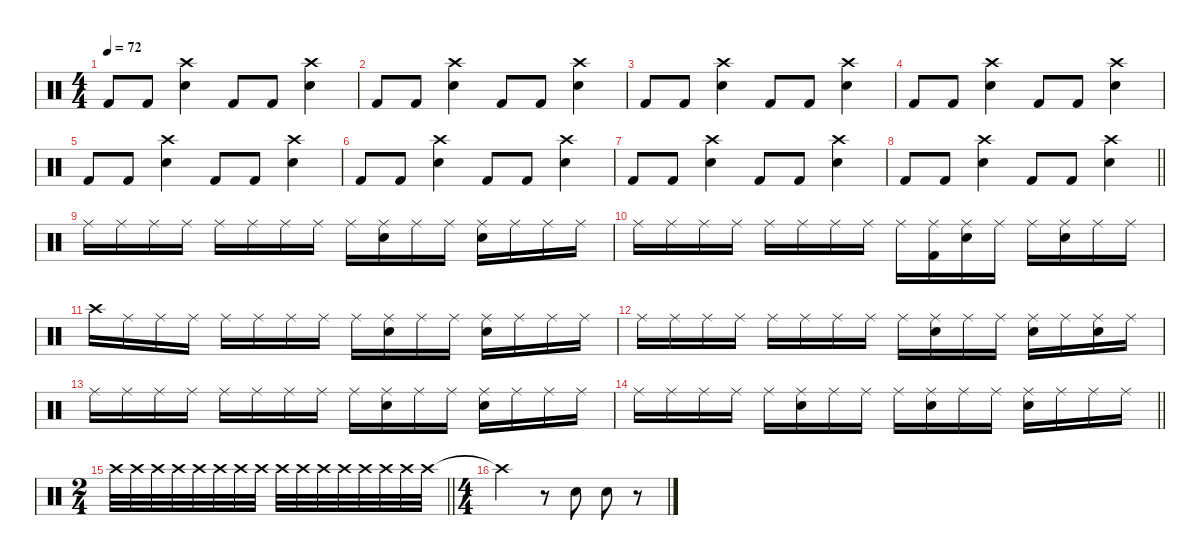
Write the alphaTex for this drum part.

\defaultSystemsLayout 4
\hideDynamics
\bracketExtendMode nobrackets
\singleTrackTrackNamePolicy hidden
\multiTrackTrackNamePolicy hidden
\otherSystemsTrackNameOrientation horizontal
\track ("Drums" "drm.") {defaultSystemsLayout 4 instrument percussion}
\staff {score}
\articulation defaults
\ts (4 4)
\tempo 72
\clef neutral
\ks c "Kick (hit) 2".8{dy f beam Up} "Kick (hit) 2".8{dy fff beam Up}
("Snare (hit) 2" "Crash high (hit)").4{beam Down} "Kick (hit) 2".8{beam Up} "Kick (hit) 2".8{beam Up} ("Snare (hit) 2" "Crash high (hit)").4{beam Down} |
"Kick (hit) 2".8{dy f beam Up} "Kick (hit) 2".8{dy fff beam Up} ("Snare (hit) 2" "Crash high (hit)").4{beam Down} "Kick (hit) 2".8{beam Up} "Kick (hit) 2".8{beam Up} ("Snare (hit) 2" "Crash high (hit)").4{beam Down} |
"Kick (hit) 2".8{dy f beam Up} "Kick (hit) 2".8{dy fff beam Up} ("Snare (hit) 2" "Crash high (hit)").4{beam Down} "Kick (hit) 2".8{beam Up} "Kick (hit) 2".8{beam Up} ("Snare (hit) 2" "Crash high (hit)").4{beam Down} |
"Kick (hit) 2".8{dy f beam Up} "Kick (hit) 2".8{dy fff beam Up} ("Snare (hit) 2" "Crash high (hit)").4{beam Down} "Kick (hit) 2".8{beam Up} "Kick (hit) 2".8{beam Up} ("Snare (hit) 2" "Crash high (hit)").4{beam Down} |
"Kick (hit) 2".8{dy f beam Up} "Kick (hit) 2".8{dy fff beam Up} ("Snare (hit) 2" "Crash high (hit)").4{beam Down} "Kick (hit) 2".8{beam Up} "Kick (hit) 2".8{beam Up} ("Snare (hit) 2" "Crash high (hit)").4{beam Down} |
"Kick (hit) 2".8{dy f beam Up} "Kick (hit) 2".8{dy fff beam Up} ("Snare (hit) 2" "Crash high (hit)").4{beam Down} "Kick (hit) 2".8{beam Up} "Kick (hit) 2".8{beam Up} ("Snare (hit) 2" "Crash high (hit)").4{beam Down} |
"Kick (hit) 2".8{dy f beam Up} "Kick (hit) 2".8{dy fff beam Up} ("Snare (hit) 2" "Crash high (hit)").4{beam Down} "Kick (hit) 2".8{beam Up} "Kick (hit) 2".8{beam Up} ("Snare (hit) 2" "Crash high (hit)").4{beam Down} |
\barLineRight lightlight "Kick (hit) 2".8{dy f beam Up} "Kick (hit) 2".8{dy fff beam Up}
("Snare (hit) 2" "Crash high (hit)").4{beam Down} "Kick (hit) 2".8{beam Up} "Kick (hit) 2".8{beam Up} ("Snare (hit) 2" "Crash high (hit)").4{beam Down} |
"Ride (middle)".16{dy p beam Down} "Ride (middle)".16{dy mp beam Down} "Ride (middle)".16{dy mf beam Down} "Ride (middle)".16{dy ff beam Down} "Ride (middle)".16{dy mp beam Down} "Ride (middle)".16{beam Down} "Ride (middle)".16{dy f beam Down} "Ride (middle)".16{dy mp beam Down} "Ride (middle)".16{beam Down} ("Snare (hit) 2" "Ride (middle)").16{dy ff beam Down} "Ride (middle)".16{dy mp beam Down} "Ride (middle)".16{dy mf beam Down} ("Snare (hit) 2" "Ride (middle)").16{dy fff beam Down} "Ride (middle)".16{dy mf beam Down} "Ride (middle)".16{beam Down} "Ride (middle)".16{dy ff beam Down} |
"Ride (middle)".16{dy f beam Down} "Ride (middle)".16{dy mf beam Down} "Ride (middle)".16{beam Down} "Ride (middle)".16{dy f beam Down} "Ride (middle)".16{dy mf beam Down} "Ride (middle)".16{dy mp beam Down} "Ride (middle)".16{dy f beam Down} "Ride (middle)".16{dy mf beam Down} "Ride (middle)".16{dy f beam Down} ("Kick (hit) 2" "Ride (middle)").16{beam Down} ("Snare (hit) 2" "Ride (middle)").16{beam Down} "Ride (middle)".16{dy mf beam Down} "Ride (middle)".16{dy f beam Down} ("Snare (hit) 2" "Ride (middle)").16{dy ff beam Down} "Ride (middle)".16{dy f beam Down} "Ride (middle)".16{beam Down} |
"Crash high (hit)".16{beam Down} "Ride (middle)".16{dy mp beam Down} "Ride (middle)".16{dy f beam Down} "Ride (middle)".16{beam Down} "Ride (middle)".16{beam Down} "Ride (middle)".16{dy mf beam Down} "Ride (middle)".16{beam Down} "Ride (middle)".16{dy f beam Down} "Ride (middle)".16{dy mp beam Down} ("Snare (hit) 2" "Ride (middle)").16{dy ff beam Down} "Ride (middle)".16{dy f beam Down} "Ride (middle)".16{dy mf beam Down} ("Snare (hit) 2" "Ride (middle)").16{dy ff beam Down} "Ride (middle)".16{dy mf beam Down} "Ride (middle)".16{dy f beam Down} "Ride (middle)".16{beam Down} |
"Ride (middle)".16{beam Down} "Ride (middle)".16{dy mf beam Down} "Ride (middle)".16{beam Down} "Ride (middle)".16{dy f beam Down} "Ride (middle)".16{beam Down} "Ride (middle)".16{dy mp beam Down} "Ride (middle)".16{dy mf beam Down} "Ride (middle)".16{dy f beam Down} "Ride (middle)".16{dy mp beam Down} ("Snare (hit) 2" "Ride (middle)").16{dy f beam Down} "Ride (middle)".16{dy ff beam Down} "Ride (middle)".16{dy mf beam Down} ("Snare (hit) 2" "Ride (middle)").16{dy ff beam Down} "Ride (middle)".16{dy mf beam Down} ("Snare (hit) 2" "Ride (middle)").16{dy ff beam Down} "Ride (middle)".16{dy f beam Down} |
"Ride (middle)".16{beam Down} "Ride (middle)".16{beam Down} "Ride (middle)".16{dy mf beam Down} "Ride (middle)".16{dy ff beam Down} "Ride (middle)".16{dy mp beam Down} "Ride (middle)".16{dy mf beam Down} "Ride (middle)".16{dy ff beam Down} "Ride (middle)".16{dy mf beam Down} "Ride (middle)".16{dy mp beam Down} ("Snare (hit) 2" "Ride (middle)").16{dy f beam Down} "Ride (middle)".16{beam Down} "Ride (middle)".16{dy mf beam Down} ("Snare (hit) 2" "Ride (middle)").16{dy ff beam Down} "Ride (middle)".16{dy f beam Down} "Ride (middle)".16{beam Down} "Ride (middle)".16{beam Down} |
\barLineRight lightlight "Ride (middle)".16{beam Down} "Ride (middle)".16{beam Down} "Ride (middle)".16{beam Down} "Ride (middle)".16{dy ff beam Down} "Ride (middle)".16{dy f beam Down}
("Snare (hit) 2" "Ride (middle)").16{beam Down} "Ride (middle)".16{beam Down} "Ride (middle)".16{beam Down} "Ride (middle)".16{dy ff beam Down} ("Snare (hit) 2" "Ride (middle)").16{dy f beam Down} "Ride (middle)".16{dy mp beam Down} "Ride (middle)".16{dy mf beam Down} ("Snare (hit) 2" "Ride (middle)").16{dy f beam Down} "Ride (middle)".16{dy mf beam Down} "Ride (middle)".16{dy f beam Down} "Ride (middle)".16{beam Down} |
\ts (2 4)
\beaming (8 2 2)
\barLineRight lightlight "Crash high (hit)".32{dy pp beam Down} "Crash high (hit)".32{beam Down} "Crash high (hit)".32{dy p beam Down} "Crash high (hit)".32{beam Down} "Crash high (hit)".32{beam Down} "Crash high (hit)".32{beam Down} "Crash high (hit)".32{beam Down} "Crash high (hit)".32{beam Down} "Crash high (hit)".32{dy mp beam Down} "Crash high (hit)".32{beam Down} "Crash high (hit)".32{beam Down} "Crash high (hit)".32{beam Down} "Crash high (hit)".32{beam Down} "Crash high (hit)".32{beam Down} "Crash high (hit)".32{dy mf beam Down} "Crash high (hit)".32{beam Down}
|
\ts (4 4)
\beaming (8 2 2 2 2)
"Crash high (hit)"{t}.2{beam Down} r.8{beam Down} "Hand Clap (hit)".8{dy fff beam Down} "Hand Clap (hit)".8{beam Down} r.8{beam Down}
